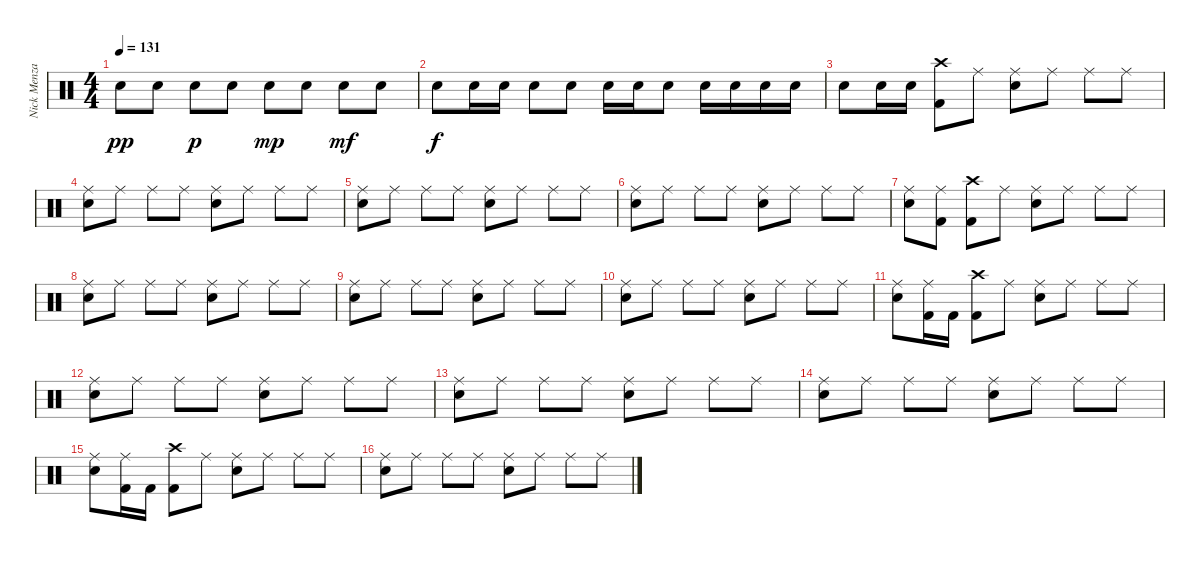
\track ("Nick Menza" "Nick Menza") {instrument percussion}
\staff {score}
\articulation defaults
\ts (4 4)
\tempo 131
\clef neutral
\ks c "Snare (hit) 2".8{dy pp} "Snare (hit) 2".8 "Snare (hit) 2".8{dy p} "Snare (hit) 2".8 "Snare (hit) 2".8{dy mp} "Snare (hit) 2".8 "Snare (hit) 2".8{dy mf} "Snare (hit) 2".8
|
"Snare (hit) 2".8{dy f} "Snare (hit) 2".16 "Snare (hit) 2".16 "Snare (hit) 2".8 "Snare (hit) 2".8 "Snare (hit) 2".16 "Snare (hit) 2".16 "Snare (hit) 2".8 "Snare (hit) 2".16 "Snare (hit) 2".16 "Snare (hit) 2".16 "Snare (hit) 2".16 |
"Snare (hit) 2".8 "Snare (hit) 2".16 "Snare (hit) 2".16 ("Crash high (hit)" "Kick (hit) 2").8 "Ride (middle)".8 ("Ride (middle)" "Snare (hit) 2").8 "Ride (middle)".8 "Ride (middle)".8 "Ride (middle)".8 |
("Ride (middle)" "Snare (hit) 2").8 "Ride (middle)".8 "Ride (middle)".8 "Ride (middle)".8 ("Ride (middle)" "Snare (hit) 2").8 "Ride (middle)".8 "Ride (middle)".8 "Ride (middle)".8 |
("Ride (middle)" "Snare (hit) 2").8 "Ride (middle)".8 "Ride (middle)".8 "Ride (middle)".8 ("Ride (middle)" "Snare (hit) 2").8 "Ride (middle)".8 "Ride (middle)".8 "Ride (middle)".8 |
("Ride (middle)" "Snare (hit) 2").8 "Ride (middle)".8 "Ride (middle)".8 "Ride (middle)".8 ("Ride (middle)" "Snare (hit) 2").8 "Ride (middle)".8 "Ride (middle)".8 "Ride (middle)".8 |
("Ride (middle)" "Snare (hit) 2").8 ("Ride (middle)" "Kick (hit) 2").8 ("Crash high (hit)" "Kick (hit) 2").8 "Ride (middle)".8 ("Ride (middle)" "Snare (hit) 2").8 "Ride (middle)".8 "Ride (middle)".8 "Ride (middle)".8 |
("Ride (middle)" "Snare (hit) 2").8 "Ride (middle)".8 "Ride (middle)".8 "Ride (middle)".8 ("Ride (middle)" "Snare (hit) 2").8 "Ride (middle)".8 "Ride (middle)".8 "Ride (middle)".8 |
("Ride (middle)" "Snare (hit) 2").8 "Ride (middle)".8 "Ride (middle)".8 "Ride (middle)".8 ("Ride (middle)" "Snare (hit) 2").8 "Ride (middle)".8 "Ride (middle)".8 "Ride (middle)".8 |
("Ride (middle)" "Snare (hit) 2").8 "Ride (middle)".8 "Ride (middle)".8 "Ride (middle)".8 ("Ride (middle)" "Snare (hit) 2").8 "Ride (middle)".8 "Ride (middle)".8 "Ride (middle)".8 |
("Ride (middle)" "Snare (hit) 2").8 ("Ride (middle)" "Kick (hit) 2").16 "Kick (hit) 2".16 ("Crash high (hit)" "Kick (hit) 2").8 "Ride (middle)".8 ("Ride (middle)" "Snare (hit) 2").8 "Ride (middle)".8 "Ride (middle)".8 "Ride (middle)".8 |
("Ride (middle)" "Snare (hit) 2").8 "Ride (middle)".8 "Ride (middle)".8 "Ride (middle)".8 ("Ride (middle)" "Snare (hit) 2").8 "Ride (middle)".8 "Ride (middle)".8 "Ride (middle)".8 |
("Ride (middle)" "Snare (hit) 2").8 "Ride (middle)".8 "Ride (middle)".8 "Ride (middle)".8 ("Ride (middle)" "Snare (hit) 2").8 "Ride (middle)".8 "Ride (middle)".8 "Ride (middle)".8 |
("Ride (middle)" "Snare (hit) 2").8 "Ride (middle)".8 "Ride (middle)".8 "Ride (middle)".8 ("Ride (middle)" "Snare (hit) 2").8 "Ride (middle)".8 "Ride (middle)".8 "Ride (middle)".8 |
("Ride (middle)" "Snare (hit) 2").8 ("Ride (middle)" "Kick (hit) 2").16 "Kick (hit) 2".16 ("Crash high (hit)" "Kick (hit) 2").8 "Ride (middle)".8 ("Ride (middle)" "Snare (hit) 2").8 "Ride (middle)".8 "Ride (middle)".8 "Ride (middle)".8 |
("Ride (middle)" "Snare (hit) 2").8 "Ride (middle)".8 "Ride (middle)".8 "Ride (middle)".8 ("Ride (middle)" "Snare (hit) 2").8 "Ride (middle)".8 "Ride (middle)".8 "Ride (middle)".8
